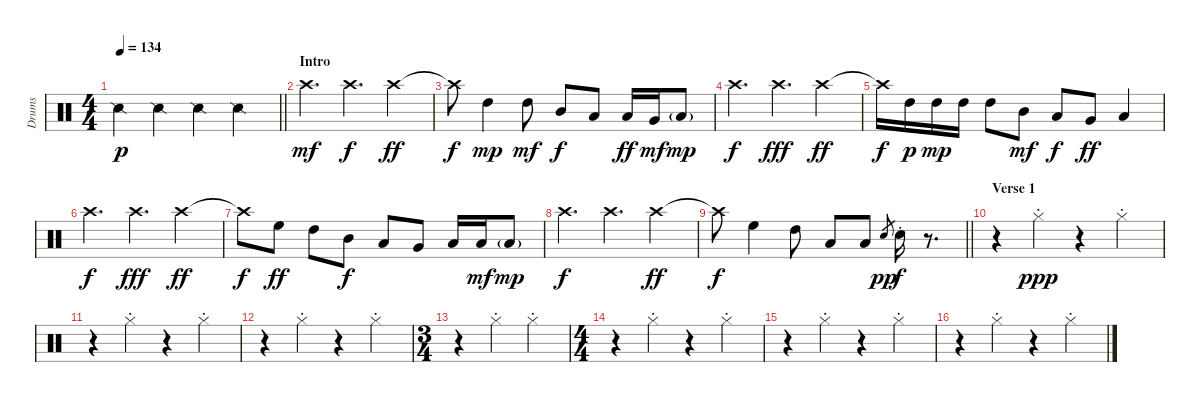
\track ("Drums" "Drums") {instrument percussion}
\staff {score}
\articulation defaults
\ts (4 4)
\tempo 134
\clef neutral
\barLineRight lightlight
\ks c "Snare (side stick) 2".4{dy p} "Snare (side stick) 2".4 "Snare (side stick) 2".4 "Snare (side stick) 2".4
|
\section ("" "Intro")
"Crash high (hit)".4{d dy mf balance 3} "Crash high (hit)".4{d dy f balance 13} "Crash high (hit)".4{dy ff balance 2} |
"Crash high (hit)"{t}.8{dy f} "High Tom (hit)".4{dy mp balance 8} "High Tom (hit)".8{dy mf} "Mid Tom (hit)".8{dy f} "Low Tom (hit)".8 "Low Tom (hit)".16{dy ff} "Very Low Tom (hit)".16{dy mf} "Low Floor Tom (hit)"{g}.8{dy mp} |
"Crash high (hit)".4{d dy f balance 13} "Crash high (hit)".4{d dy fff balance 2} "Crash high (hit)".4{dy ff balance 13} |
"Crash high (hit)"{t}.16{dy f} "High Tom (hit)".16{dy p balance 8} "High Tom (hit)".16{dy mp} "High Tom (hit)".16 "High Tom (hit)".8 "Mid Tom (hit)".8{dy mf} "Low Tom (hit)".8{dy f} "Very Low Tom (hit)".8{dy ff} "Low Floor Tom (hit)".4 |
"Crash high (hit)".4{d dy f balance 13} "Crash high (hit)".4{d dy fff balance 3} "Crash high (hit)".4{dy ff balance 13} |
"Crash high (hit)"{t}.8{dy f} "High Floor Tom (hit)".8{dy ff balance 8} "High Tom (hit)".8 "Mid Tom (hit)".8{dy f} "Low Tom (hit)".8 "Very Low Tom (hit)".8 "Low Floor Tom (hit)".16 "Low Floor Tom (hit)".16{dy mf} "Low Floor Tom (hit)"{g}.8{dy mp} |
"Crash high (hit)".4{d dy f balance 12} "Crash high (hit)".4{d} "Crash high (hit)".4{dy ff balance 3} |
\barLineRight lightlight "Crash high (hit)"{t}.8{dy f} "High Floor Tom (hit)".4{balance 8} "High Tom (hit)".8 "Low Tom (hit)".8 "Low Tom (hit)".8 "Snare (hit) 2".8{gr dy pp} "Snare (hit) 2"{st}.16{dy f}
r.8{d} |
\section ("" "Verse 1")
r.4 "Hi-Hat (closed)"{st}.4{dy ppp} r.4 "Hi-Hat (closed)"{st}.4 |
r.4 "Hi-Hat (closed)"{st}.4 r.4 "Hi-Hat (closed)"{st}.4 |
r.4 "Hi-Hat (closed)"{st}.4 r.4 "Hi-Hat (closed)"{st}.4 |
\ts (3 4)
r.4 "Hi-Hat (closed)"{st}.4 "Hi-Hat (closed)"{st}.4 |
\ts (4 4)
r.4 "Hi-Hat (closed)"{st}.4 r.4 "Hi-Hat (closed)"{st}.4 |
r.4 "Hi-Hat (closed)"{st}.4 r.4 "Hi-Hat (closed)"{st}.4 |
r.4 "Hi-Hat (closed)"{st}.4 r.4 "Hi-Hat (closed)"{st}.4
